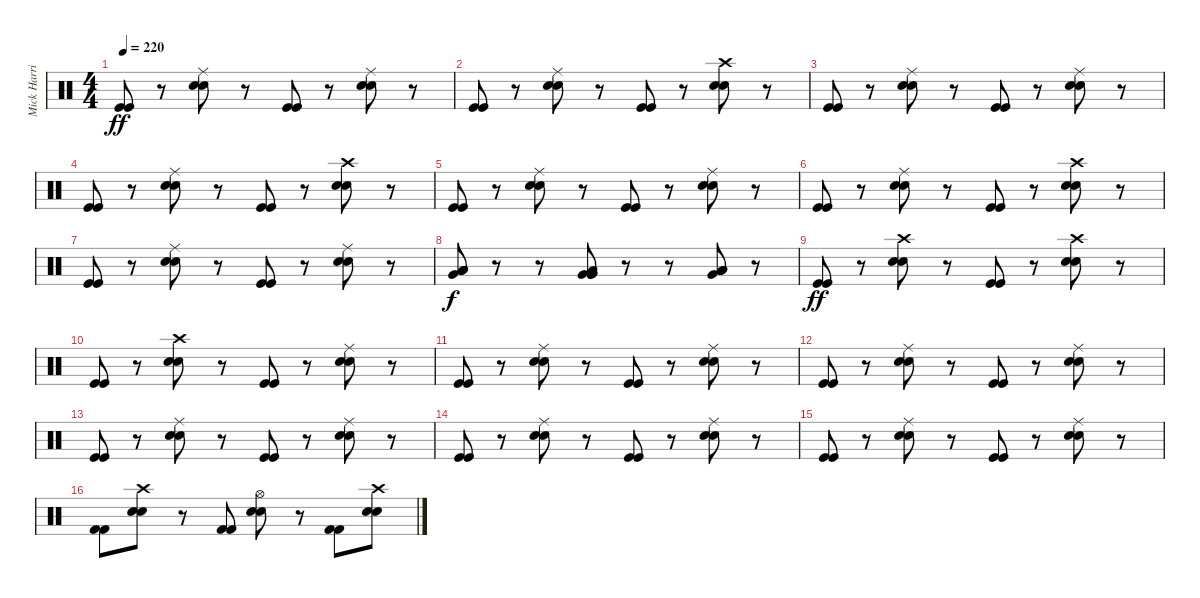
\track ("Mick Harris" "Mick Harri") {instrument percussion}
\staff {score}
\articulation defaults
\ts (4 4)
\tempo 220
\clef neutral
\ks c
("Kick (hit)" "Kick (hit)").8{dy ff} r.8 ("Ride (middle)" "Snare (hit) 2" "Snare (hit) 2").8 r.8 ("Kick (hit)" "Kick (hit)").8 r.8 ("Ride (middle)" "Snare (hit) 2" "Snare (hit) 2").8 r.8 |
("Kick (hit)" "Kick (hit)").8 r.8 ("Ride (middle)" "Snare (hit) 2" "Snare (hit) 2").8 r.8 ("Kick (hit)" "Kick (hit)").8 r.8 ("Crash high (hit)" "Snare (hit) 2" "Snare (hit) 2").8 r.8 |
("Kick (hit)" "Kick (hit)").8 r.8 ("Ride (middle)" "Snare (hit) 2" "Snare (hit) 2").8 r.8 ("Kick (hit)" "Kick (hit)").8 r.8 ("Ride (middle)" "Snare (hit) 2" "Snare (hit) 2").8 r.8 |
("Kick (hit)" "Kick (hit)").8 r.8 ("Ride (middle)" "Snare (hit) 2" "Snare (hit) 2").8 r.8 ("Kick (hit)" "Kick (hit)").8 r.8 ("Crash high (hit)" "Snare (hit) 2" "Snare (hit) 2").8 r.8 |
("Kick (hit)" "Kick (hit)").8 r.8 ("Ride (middle)" "Snare (hit) 2" "Snare (hit) 2").8 r.8 ("Kick (hit)" "Kick (hit)").8 r.8 ("Ride (middle)" "Snare (hit) 2" "Snare (hit) 2").8 r.8 |
("Kick (hit)" "Kick (hit)").8 r.8 ("Ride (middle)" "Snare (hit) 2" "Snare (hit) 2").8 r.8 ("Kick (hit)" "Kick (hit)").8 r.8 ("Crash high (hit)" "Snare (hit) 2" "Snare (hit) 2").8 r.8 |
("Kick (hit)" "Kick (hit)").8 r.8 ("Ride (middle)" "Snare (hit) 2" "Snare (hit) 2").8 r.8 ("Kick (hit)" "Kick (hit)").8 r.8 ("Ride (middle)" "Snare (hit) 2" "Snare (hit) 2").8 r.8 |
("Low Floor Tom (hit)" "Low Tom (hit)" "Low Tom (hit)" "Very Low Tom (hit)").8{dy f volume 16} r.8 r.8 ("Low Floor Tom (hit)" "Very Low Tom (hit)" "Very Low Tom (hit)" "Very Low Tom (hit)").8{volume 16} r.8 r.8 ("Low Floor Tom (hit)" "Low Tom (hit)" "Low Tom (hit)" "Very Low Tom (hit)").8{volume 16} r.8 |
("Kick (hit)" "Kick (hit)").8{dy ff} r.8 ("Crash high (hit)" "Snare (hit) 2" "Snare (hit) 2").8 r.8 ("Kick (hit)" "Kick (hit)").8 r.8 ("Crash high (hit)" "Snare (hit) 2" "Snare (hit) 2").8 r.8 |
("Kick (hit)" "Kick (hit)").8 r.8 ("Crash high (hit)" "Snare (hit) 2" "Snare (hit) 2").8 r.8 ("Kick (hit)" "Kick (hit)").8 r.8 ("Ride (middle)" "Snare (hit) 2" "Snare (hit) 2").8 r.8 |
("Kick (hit)" "Kick (hit)").8 r.8 ("Ride (middle)" "Snare (hit) 2" "Snare (hit) 2").8 r.8 ("Kick (hit)" "Kick (hit)").8 r.8 ("Ride (middle)" "Snare (hit) 2" "Snare (hit) 2").8 r.8 |
("Kick (hit)" "Kick (hit)").8 r.8 ("Ride (middle)" "Snare (hit) 2" "Snare (hit) 2").8 r.8 ("Kick (hit)" "Kick (hit)").8 r.8 ("Ride (middle)" "Snare (hit) 2" "Snare (hit) 2").8 r.8 |
("Kick (hit)" "Kick (hit)").8 r.8 ("Ride (middle)" "Snare (hit) 2" "Snare (hit) 2").8 r.8 ("Kick (hit)" "Kick (hit)").8 r.8 ("Ride (middle)" "Snare (hit) 2" "Snare (hit) 2").8 r.8 |
("Kick (hit)" "Kick (hit)").8 r.8 ("Ride (middle)" "Snare (hit) 2" "Snare (hit) 2").8 r.8 ("Kick (hit)" "Kick (hit)").8 r.8 ("Ride (middle)" "Snare (hit) 2" "Snare (hit) 2").8 r.8 |
("Kick (hit)" "Kick (hit)").8 r.8 ("Ride (middle)" "Snare (hit) 2" "Snare (hit) 2").8 r.8 ("Kick (hit)" "Kick (hit)").8 r.8 ("Ride (middle)" "Snare (hit) 2" "Snare (hit) 2").8 r.8 |
("Kick (hit) 2" "Kick (hit) 2").8 ("Crash high (hit)" "Snare (hit) 2" "Snare (hit) 2").8 r.8 ("Kick (hit) 2" "Kick (hit) 2").8 ("Hi-Hat (open)" "Snare (hit) 2" "Snare (hit) 2").8 r.8 ("Kick (hit) 2" "Kick (hit) 2").8 ("Crash high (hit)" "Snare (hit) 2" "Snare (hit) 2").8
